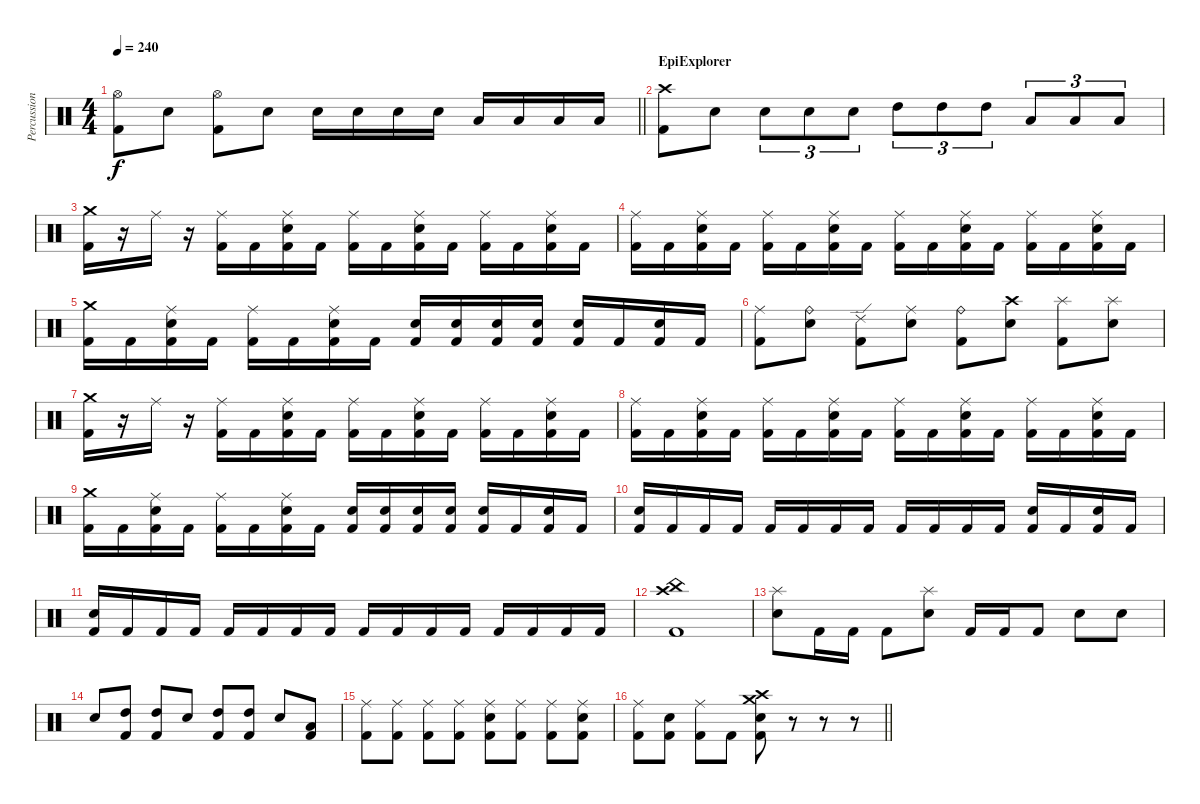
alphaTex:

\track ("Percussion" "Percussion") {instrument percussion}
\staff {score}
\articulation defaults
\ts (4 4)
\tempo 240
\clef neutral
\barLineRight lightlight
\ks c
("Hi-Hat (open)" "Kick (hit) 2").8{dy f} "Electric Snare (hit)".8 ("Hi-Hat (open)" "Kick (hit) 2").8 "Electric Snare (hit)".8 "Electric Snare (hit)".16 "Electric Snare (hit)".16 "Electric Snare (hit)".16 "Electric Snare (hit)".16 "Low Tom (hit)".16 "Low Tom (hit)".16 "Low Tom (hit)".16 "Low Tom (hit)".16 |
\section ("" "EpiExplorer")
("Crash high (hit)" "Kick (hit) 2").8 "Electric Snare (hit)".8 "Electric Snare (hit)".8{tu (3 2)} "Electric Snare (hit)".8{tu (3 2)} "Electric Snare (hit)".8{tu (3 2)} "High Tom (hit)".8{tu (3 2)} "High Tom (hit)".8{tu (3 2)} "High Tom (hit)".8{tu (3 2)} "Low Tom (hit)".8{tu (3 2)} "Low Tom (hit)".8{tu (3 2)} "Low Tom (hit)".8{tu (3 2)} |
("Crash medium (hit)" "Kick (hit) 2").16 r.16 "Ride (middle)".16 r.16 ("Ride (middle)" "Kick (hit) 2").16 "Kick (hit) 2".16 ("Ride (middle)" "Electric Snare (hit)" "Kick (hit) 2").16 "Kick (hit) 2".16 ("Ride (middle)" "Kick (hit) 2").16 "Kick (hit) 2".16 ("Ride (middle)" "Electric Snare (hit)" "Kick (hit) 2").16 "Kick (hit) 2".16 ("Ride (middle)" "Kick (hit) 2").16 "Kick (hit) 2".16 ("Ride (middle)" "Electric Snare (hit)" "Kick (hit) 2").16 "Kick (hit) 2".16 |
("Ride (middle)" "Kick (hit) 2").16 "Kick (hit) 2".16 ("Ride (middle)" "Electric Snare (hit)" "Kick (hit) 2").16 "Kick (hit) 2".16 ("Ride (middle)" "Kick (hit) 2").16 "Kick (hit) 2".16 ("Ride (middle)" "Electric Snare (hit)" "Kick (hit) 2").16 "Kick (hit) 2".16 ("Ride (middle)" "Kick (hit) 2").16 "Kick (hit) 2".16 ("Ride (middle)" "Electric Snare (hit)" "Kick (hit) 2").16 "Kick (hit) 2".16 ("Ride (middle)" "Kick (hit) 2").16 "Kick (hit) 2".16 ("Ride (middle)" "Electric Snare (hit)" "Kick (hit) 2").16 "Kick (hit) 2".16 |
("Crash medium (hit)" "Kick (hit) 2").16 "Kick (hit) 2".16 ("Ride (middle)" "Electric Snare (hit)" "Kick (hit) 2").16 "Kick (hit) 2".16 ("Ride (middle)" "Kick (hit) 2").16 "Kick (hit) 2".16 ("Ride (middle)" "Electric Snare (hit)" "Kick (hit) 2").16 "Kick (hit) 2".16 ("Electric Snare (hit)" "Kick (hit) 2").16 ("Electric Snare (hit)" "Kick (hit) 2").16 ("Electric Snare (hit)" "Kick (hit) 2").16 ("Electric Snare (hit)" "Kick (hit) 2").16 ("Electric Snare (hit)" "Kick (hit) 2").16 "Kick (hit) 2".16 ("Electric Snare (hit)" "Kick (hit) 2").16 "Kick (hit) 2".16 |
("Ride (middle)" "Kick (hit) 2").8 ("Ride (bell)" "Electric Snare (hit)").8 ("Ride (edge) 2" "Kick (hit) 2").8 ("Ride (middle)" "Electric Snare (hit)").8 ("Ride (bell)" "Kick (hit) 2").8 ("Crash high (hit)" "Electric Snare (hit)").8 ("Splash (hit)" "Kick (hit) 2").8 ("Splash (hit)" "Electric Snare (hit)").8 |
("Crash medium (hit)" "Kick (hit) 2").16 r.16 "Ride (middle)".16 r.16 ("Ride (middle)" "Kick (hit) 2").16 "Kick (hit) 2".16 ("Ride (middle)" "Electric Snare (hit)" "Kick (hit) 2").16 "Kick (hit) 2".16 ("Ride (middle)" "Kick (hit) 2").16 "Kick (hit) 2".16 ("Ride (middle)" "Electric Snare (hit)" "Kick (hit) 2").16 "Kick (hit) 2".16 ("Ride (middle)" "Kick (hit) 2").16 "Kick (hit) 2".16 ("Ride (middle)" "Electric Snare (hit)" "Kick (hit) 2").16 "Kick (hit) 2".16 |
("Ride (middle)" "Kick (hit) 2").16 "Kick (hit) 2".16 ("Ride (middle)" "Electric Snare (hit)" "Kick (hit) 2").16 "Kick (hit) 2".16 ("Ride (middle)" "Kick (hit) 2").16 "Kick (hit) 2".16 ("Ride (middle)" "Electric Snare (hit)" "Kick (hit) 2").16 "Kick (hit) 2".16 ("Ride (middle)" "Kick (hit) 2").16 "Kick (hit) 2".16 ("Ride (middle)" "Electric Snare (hit)" "Kick (hit) 2").16 "Kick (hit) 2".16 ("Ride (middle)" "Kick (hit) 2").16 "Kick (hit) 2".16 ("Ride (middle)" "Electric Snare (hit)" "Kick (hit) 2").16 "Kick (hit) 2".16 |
("Crash medium (hit)" "Kick (hit) 2").16 "Kick (hit) 2".16 ("Ride (middle)" "Electric Snare (hit)" "Kick (hit) 2").16 "Kick (hit) 2".16 ("Ride (middle)" "Kick (hit) 2").16 "Kick (hit) 2".16 ("Ride (middle)" "Electric Snare (hit)" "Kick (hit) 2").16 "Kick (hit) 2".16 ("Electric Snare (hit)" "Kick (hit) 2").16 ("Electric Snare (hit)" "Kick (hit) 2").16 ("Electric Snare (hit)" "Kick (hit) 2").16 ("Electric Snare (hit)" "Kick (hit) 2").16 ("Electric Snare (hit)" "Kick (hit) 2").16 "Kick (hit) 2".16 ("Electric Snare (hit)" "Kick (hit) 2").16 "Kick (hit) 2".16 |
("Electric Snare (hit)" "Kick (hit) 2").16 "Kick (hit) 2".16 "Kick (hit) 2".16 "Kick (hit) 2".16 "Kick (hit) 2".16 "Kick (hit) 2".16 "Kick (hit) 2".16 "Kick (hit) 2".16 "Kick (hit) 2".16 "Kick (hit) 2".16 "Kick (hit) 2".16 "Kick (hit) 2".16 ("Electric Snare (hit)" "Kick (hit) 2").16 "Kick (hit) 2".16 ("Electric Snare (hit)" "Kick (hit) 2").16 "Kick (hit) 2".16 |
("Electric Snare (hit)" "Kick (hit) 2").16 "Kick (hit) 2".16 "Kick (hit) 2".16 "Kick (hit) 2".16 "Kick (hit) 2".16 "Kick (hit) 2".16 "Kick (hit) 2".16 "Kick (hit) 2".16 "Kick (hit) 2".16 "Kick (hit) 2".16 "Kick (hit) 2".16 "Kick (hit) 2".16 "Kick (hit) 2".16 "Kick (hit) 2".16 "Kick (hit) 2".16 "Kick (hit) 2".16 |
("China (hit)" "Crash high (hit)" "Kick (hit) 2").1 |
("Splash (hit)" "Electric Snare (hit)").8 "Kick (hit) 2".16 "Kick (hit) 2".16 "Kick (hit) 2".8 ("Splash (hit)" "Electric Snare (hit)").8 "Kick (hit) 2".16 "Kick (hit) 2".16 "Kick (hit) 2".8 "Electric Snare (hit)".8 "Electric Snare (hit)".8 |
"Electric Snare (hit)".8 ("High Tom (hit)" "Kick (hit) 2").8 ("High Tom (hit)" "Kick (hit) 2").8 "Electric Snare (hit)".8 ("High Tom (hit)" "Kick (hit) 2").8 ("High Tom (hit)" "Kick (hit) 2").8 "Electric Snare (hit)".8 ("Low Tom (hit)" "Kick (hit) 2").8 |
("Ride (middle)" "Kick (hit) 2").8 ("Ride (middle)" "Kick (hit) 2").8 ("Ride (middle)" "Kick (hit) 2").8 ("Ride (middle)" "Kick (hit) 2").8 ("Ride (middle)" "Electric Snare (hit)" "Kick (hit) 2").8 ("Ride (middle)" "Kick (hit) 2").8 ("Ride (middle)" "Kick (hit) 2").8 ("Ride (middle)" "Electric Snare (hit)" "Kick (hit) 2").8 |
\barLineRight lightlight
("Ride (middle)" "Kick (hit) 2").8 ("Electric Snare (hit)" "Kick (hit) 2").8 ("Ride (middle)" "Kick (hit) 2").8 "Kick (hit) 2".8 ("Crash high (hit)" "Crash medium (hit)" "Electric Snare (hit)" "Kick (hit) 2").8 r.8 r.8 r.8
